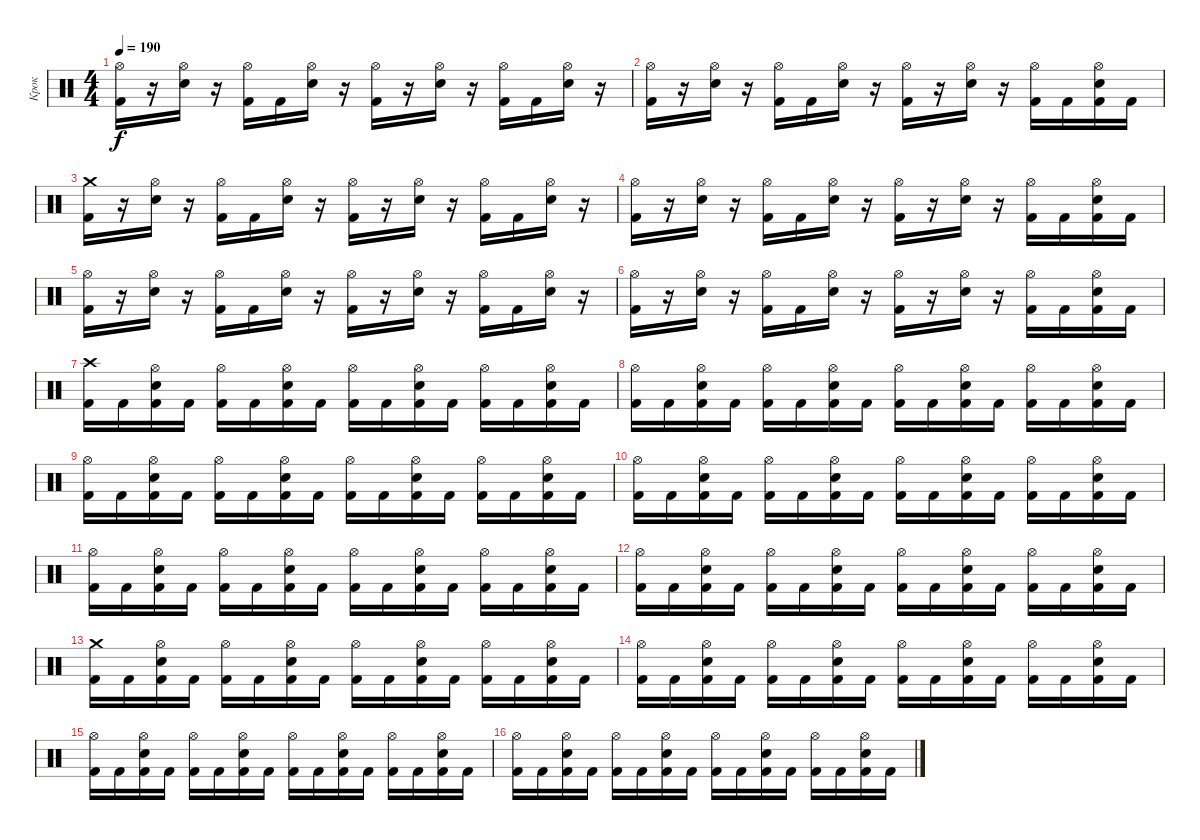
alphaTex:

\track ("Крок" "Крок") {instrument percussion}
\staff {score}
\articulation defaults
\ts (4 4)
\tempo 190
\clef neutral
\ks c
("Hi-Hat (open)" "Kick (hit) 2").16{dy f} r.16 ("Hi-Hat (open)" "Electric Snare (hit)").16 r.16 ("Hi-Hat (open)" "Kick (hit) 2").16 "Kick (hit) 2".16 ("Hi-Hat (open)" "Electric Snare (hit)").16 r.16 ("Hi-Hat (open)" "Kick (hit) 2").16 r.16 ("Hi-Hat (open)" "Electric Snare (hit)").16 r.16 ("Hi-Hat (open)" "Kick (hit) 2").16 "Kick (hit) 2".16 ("Hi-Hat (open)" "Electric Snare (hit)").16 r.16 |
("Hi-Hat (open)" "Kick (hit) 2").16 r.16 ("Hi-Hat (open)" "Electric Snare (hit)").16 r.16 ("Hi-Hat (open)" "Kick (hit) 2").16 "Kick (hit) 2".16 ("Hi-Hat (open)" "Electric Snare (hit)").16 r.16 ("Hi-Hat (open)" "Kick (hit) 2").16 r.16 ("Hi-Hat (open)" "Electric Snare (hit)").16 r.16 ("Hi-Hat (open)" "Kick (hit) 2").16 "Kick (hit) 2".16 ("Hi-Hat (open)" "Electric Snare (hit)" "Kick (hit) 2").16 "Kick (hit) 2".16 |
("Crash medium (hit)" "Kick (hit) 2").16 r.16 ("Hi-Hat (open)" "Electric Snare (hit)").16 r.16 ("Hi-Hat (open)" "Kick (hit) 2").16 "Kick (hit) 2".16 ("Hi-Hat (open)" "Electric Snare (hit)").16 r.16 ("Hi-Hat (open)" "Kick (hit) 2").16 r.16 ("Hi-Hat (open)" "Electric Snare (hit)").16 r.16 ("Hi-Hat (open)" "Kick (hit) 2").16 "Kick (hit) 2".16 ("Hi-Hat (open)" "Electric Snare (hit)").16 r.16 |
("Hi-Hat (open)" "Kick (hit) 2").16 r.16 ("Hi-Hat (open)" "Electric Snare (hit)").16 r.16 ("Hi-Hat (open)" "Kick (hit) 2").16 "Kick (hit) 2".16 ("Hi-Hat (open)" "Electric Snare (hit)").16 r.16 ("Hi-Hat (open)" "Kick (hit) 2").16 r.16 ("Hi-Hat (open)" "Electric Snare (hit)").16 r.16 ("Hi-Hat (open)" "Kick (hit) 2").16 "Kick (hit) 2".16 ("Hi-Hat (open)" "Electric Snare (hit)" "Kick (hit) 2").16 "Kick (hit) 2".16 |
("Hi-Hat (open)" "Kick (hit) 2").16 r.16 ("Hi-Hat (open)" "Electric Snare (hit)").16 r.16 ("Hi-Hat (open)" "Kick (hit) 2").16 "Kick (hit) 2".16 ("Hi-Hat (open)" "Electric Snare (hit)").16 r.16 ("Hi-Hat (open)" "Kick (hit) 2").16 r.16 ("Hi-Hat (open)" "Electric Snare (hit)").16 r.16 ("Hi-Hat (open)" "Kick (hit) 2").16 "Kick (hit) 2".16 ("Hi-Hat (open)" "Electric Snare (hit)").16 r.16 |
("Hi-Hat (open)" "Kick (hit) 2").16 r.16 ("Hi-Hat (open)" "Electric Snare (hit)").16 r.16 ("Hi-Hat (open)" "Kick (hit) 2").16 "Kick (hit) 2".16 ("Hi-Hat (open)" "Electric Snare (hit)").16 r.16 ("Hi-Hat (open)" "Kick (hit) 2").16 r.16 ("Hi-Hat (open)" "Electric Snare (hit)").16 r.16 ("Hi-Hat (open)" "Kick (hit) 2").16 "Kick (hit) 2".16 ("Hi-Hat (open)" "Electric Snare (hit)" "Kick (hit) 2").16 "Kick (hit) 2".16 |
("Crash high (hit)" "Kick (hit) 2").16 "Kick (hit) 2".16 ("Hi-Hat (open)" "Electric Snare (hit)" "Kick (hit) 2").16 "Kick (hit) 2".16 ("Hi-Hat (open)" "Kick (hit) 2").16 "Kick (hit) 2".16 ("Hi-Hat (open)" "Electric Snare (hit)" "Kick (hit) 2").16 "Kick (hit) 2".16 ("Hi-Hat (open)" "Kick (hit) 2").16 "Kick (hit) 2".16 ("Hi-Hat (open)" "Electric Snare (hit)" "Kick (hit) 2").16 "Kick (hit) 2".16 ("Hi-Hat (open)" "Kick (hit) 2").16 "Kick (hit) 2".16 ("Hi-Hat (open)" "Electric Snare (hit)" "Kick (hit) 2").16 "Kick (hit) 2".16 |
("Hi-Hat (open)" "Kick (hit) 2").16 "Kick (hit) 2".16 ("Hi-Hat (open)" "Electric Snare (hit)" "Kick (hit) 2").16 "Kick (hit) 2".16 ("Hi-Hat (open)" "Kick (hit) 2").16 "Kick (hit) 2".16 ("Hi-Hat (open)" "Electric Snare (hit)" "Kick (hit) 2").16 "Kick (hit) 2".16 ("Hi-Hat (open)" "Kick (hit) 2").16 "Kick (hit) 2".16 ("Hi-Hat (open)" "Electric Snare (hit)" "Kick (hit) 2").16 "Kick (hit) 2".16 ("Hi-Hat (open)" "Kick (hit) 2").16 "Kick (hit) 2".16 ("Hi-Hat (open)" "Electric Snare (hit)" "Kick (hit) 2").16 "Kick (hit) 2".16 |
("Hi-Hat (open)" "Kick (hit) 2").16 "Kick (hit) 2".16 ("Hi-Hat (open)" "Electric Snare (hit)" "Kick (hit) 2").16 "Kick (hit) 2".16 ("Hi-Hat (open)" "Kick (hit) 2").16 "Kick (hit) 2".16 ("Hi-Hat (open)" "Electric Snare (hit)" "Kick (hit) 2").16 "Kick (hit) 2".16 ("Hi-Hat (open)" "Kick (hit) 2").16 "Kick (hit) 2".16 ("Hi-Hat (open)" "Electric Snare (hit)" "Kick (hit) 2").16 "Kick (hit) 2".16 ("Hi-Hat (open)" "Kick (hit) 2").16 "Kick (hit) 2".16 ("Hi-Hat (open)" "Electric Snare (hit)" "Kick (hit) 2").16 "Kick (hit) 2".16 |
("Hi-Hat (open)" "Kick (hit) 2").16 "Kick (hit) 2".16 ("Hi-Hat (open)" "Electric Snare (hit)" "Kick (hit) 2").16 "Kick (hit) 2".16 ("Hi-Hat (open)" "Kick (hit) 2").16 "Kick (hit) 2".16 ("Hi-Hat (open)" "Electric Snare (hit)" "Kick (hit) 2").16 "Kick (hit) 2".16 ("Hi-Hat (open)" "Kick (hit) 2").16 "Kick (hit) 2".16 ("Hi-Hat (open)" "Electric Snare (hit)" "Kick (hit) 2").16 "Kick (hit) 2".16 ("Hi-Hat (open)" "Kick (hit) 2").16 "Kick (hit) 2".16 ("Hi-Hat (open)" "Electric Snare (hit)" "Kick (hit) 2").16 "Kick (hit) 2".16 |
("Hi-Hat (open)" "Kick (hit) 2").16 "Kick (hit) 2".16 ("Hi-Hat (open)" "Electric Snare (hit)" "Kick (hit) 2").16 "Kick (hit) 2".16 ("Hi-Hat (open)" "Kick (hit) 2").16 "Kick (hit) 2".16 ("Hi-Hat (open)" "Electric Snare (hit)" "Kick (hit) 2").16 "Kick (hit) 2".16 ("Hi-Hat (open)" "Kick (hit) 2").16 "Kick (hit) 2".16 ("Hi-Hat (open)" "Electric Snare (hit)" "Kick (hit) 2").16 "Kick (hit) 2".16 ("Hi-Hat (open)" "Kick (hit) 2").16 "Kick (hit) 2".16 ("Hi-Hat (open)" "Electric Snare (hit)" "Kick (hit) 2").16 "Kick (hit) 2".16 |
("Hi-Hat (open)" "Kick (hit) 2").16 "Kick (hit) 2".16 ("Hi-Hat (open)" "Electric Snare (hit)" "Kick (hit) 2").16 "Kick (hit) 2".16 ("Hi-Hat (open)" "Kick (hit) 2").16 "Kick (hit) 2".16 ("Hi-Hat (open)" "Electric Snare (hit)" "Kick (hit) 2").16 "Kick (hit) 2".16 ("Hi-Hat (open)" "Kick (hit) 2").16 "Kick (hit) 2".16 ("Hi-Hat (open)" "Electric Snare (hit)" "Kick (hit) 2").16 "Kick (hit) 2".16 ("Hi-Hat (open)" "Kick (hit) 2").16 "Kick (hit) 2".16 ("Hi-Hat (open)" "Electric Snare (hit)" "Kick (hit) 2").16 "Kick (hit) 2".16 |
("Crash medium (hit)" "Kick (hit) 2").16 "Kick (hit) 2".16 ("Hi-Hat (open)" "Electric Snare (hit)" "Kick (hit) 2").16 "Kick (hit) 2".16 ("Hi-Hat (open)" "Kick (hit) 2").16 "Kick (hit) 2".16 ("Hi-Hat (open)" "Electric Snare (hit)" "Kick (hit) 2").16 "Kick (hit) 2".16 ("Hi-Hat (open)" "Kick (hit) 2").16 "Kick (hit) 2".16 ("Hi-Hat (open)" "Electric Snare (hit)" "Kick (hit) 2").16 "Kick (hit) 2".16 ("Hi-Hat (open)" "Kick (hit) 2").16 "Kick (hit) 2".16 ("Hi-Hat (open)" "Electric Snare (hit)" "Kick (hit) 2").16 "Kick (hit) 2".16 |
("Hi-Hat (open)" "Kick (hit) 2").16 "Kick (hit) 2".16 ("Hi-Hat (open)" "Electric Snare (hit)" "Kick (hit) 2").16 "Kick (hit) 2".16 ("Hi-Hat (open)" "Kick (hit) 2").16 "Kick (hit) 2".16 ("Hi-Hat (open)" "Electric Snare (hit)" "Kick (hit) 2").16 "Kick (hit) 2".16 ("Hi-Hat (open)" "Kick (hit) 2").16 "Kick (hit) 2".16 ("Hi-Hat (open)" "Electric Snare (hit)" "Kick (hit) 2").16 "Kick (hit) 2".16 ("Hi-Hat (open)" "Kick (hit) 2").16 "Kick (hit) 2".16 ("Hi-Hat (open)" "Electric Snare (hit)" "Kick (hit) 2").16 "Kick (hit) 2".16 |
("Hi-Hat (open)" "Kick (hit) 2").16 "Kick (hit) 2".16 ("Hi-Hat (open)" "Electric Snare (hit)" "Kick (hit) 2").16 "Kick (hit) 2".16 ("Hi-Hat (open)" "Kick (hit) 2").16 "Kick (hit) 2".16 ("Hi-Hat (open)" "Electric Snare (hit)" "Kick (hit) 2").16 "Kick (hit) 2".16 ("Hi-Hat (open)" "Kick (hit) 2").16 "Kick (hit) 2".16 ("Hi-Hat (open)" "Electric Snare (hit)" "Kick (hit) 2").16 "Kick (hit) 2".16 ("Hi-Hat (open)" "Kick (hit) 2").16 "Kick (hit) 2".16 ("Hi-Hat (open)" "Electric Snare (hit)" "Kick (hit) 2").16 "Kick (hit) 2".16 |
("Hi-Hat (open)" "Kick (hit) 2").16 "Kick (hit) 2".16 ("Hi-Hat (open)" "Electric Snare (hit)" "Kick (hit) 2").16 "Kick (hit) 2".16 ("Hi-Hat (open)" "Kick (hit) 2").16 "Kick (hit) 2".16 ("Hi-Hat (open)" "Electric Snare (hit)" "Kick (hit) 2").16 "Kick (hit) 2".16 ("Hi-Hat (open)" "Kick (hit) 2").16 "Kick (hit) 2".16 ("Hi-Hat (open)" "Electric Snare (hit)" "Kick (hit) 2").16 "Kick (hit) 2".16 ("Hi-Hat (open)" "Kick (hit) 2").16 "Kick (hit) 2".16 ("Hi-Hat (open)" "Electric Snare (hit)" "Kick (hit) 2").16 "Kick (hit) 2".16
